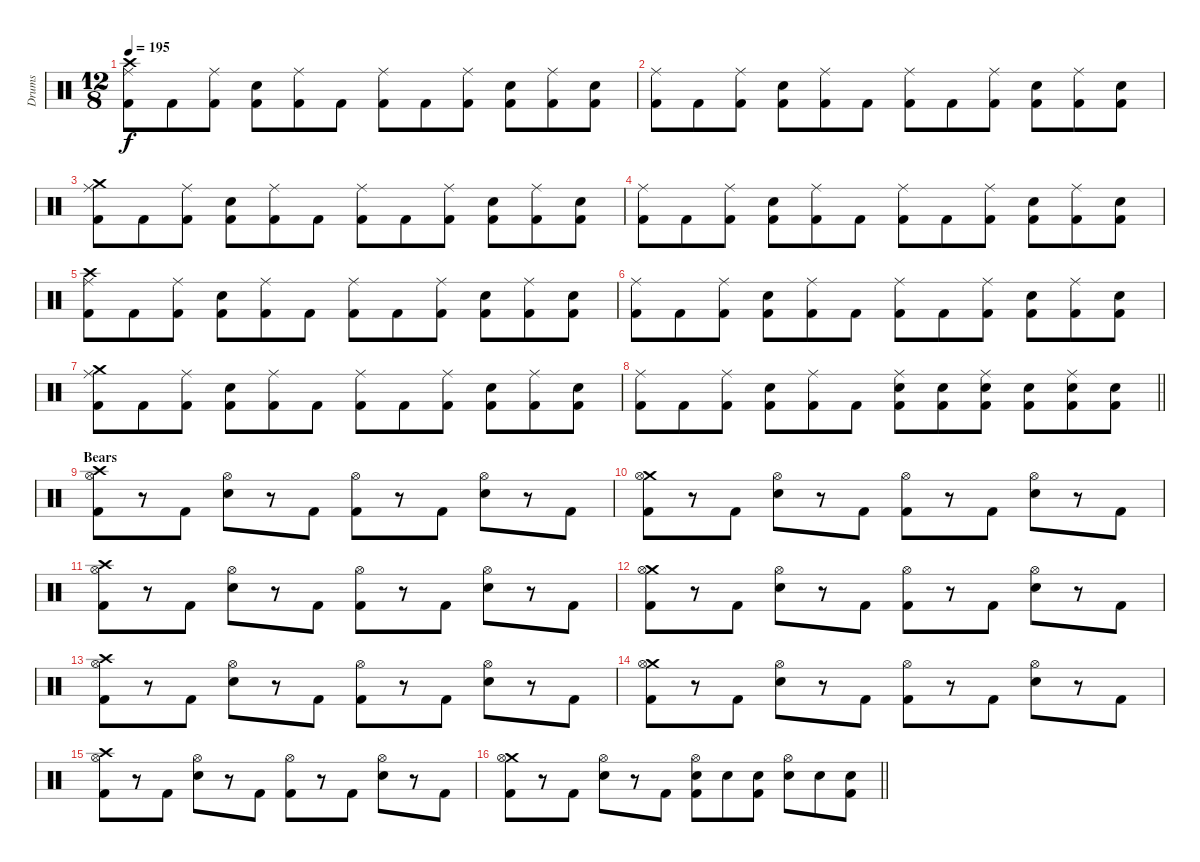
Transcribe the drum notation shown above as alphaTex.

\track ("Drums" "Drums") {instrument percussion}
\staff {score}
\articulation defaults
\ts (12 8)
\tempo 195
\clef neutral
\ks c
("Crash high (hit)" "Ride (middle)" "Kick (hit) 2").8{dy f} "Kick (hit) 2".8 ("Ride (middle)" "Kick (hit) 2").8 ("Snare (hit) 2" "Kick (hit) 2").8 ("Ride (middle)" "Kick (hit) 2").8 "Kick (hit) 2".8 ("Ride (middle)" "Kick (hit) 2").8 "Kick (hit) 2".8 ("Ride (middle)" "Kick (hit) 2").8 ("Snare (hit) 2" "Kick (hit) 2").8 ("Ride (middle)" "Kick (hit) 2").8 ("Snare (hit) 2" "Kick (hit) 2").8 |
("Ride (middle)" "Kick (hit) 2").8 "Kick (hit) 2".8 ("Ride (middle)" "Kick (hit) 2").8 ("Snare (hit) 2" "Kick (hit) 2").8 ("Ride (middle)" "Kick (hit) 2").8 "Kick (hit) 2".8 ("Ride (middle)" "Kick (hit) 2").8 "Kick (hit) 2".8 ("Ride (middle)" "Kick (hit) 2").8 ("Snare (hit) 2" "Kick (hit) 2").8 ("Ride (middle)" "Kick (hit) 2").8 ("Snare (hit) 2" "Kick (hit) 2").8 |
("Crash medium (hit)" "Ride (middle)" "Kick (hit) 2").8 "Kick (hit) 2".8 ("Ride (middle)" "Kick (hit) 2").8 ("Snare (hit) 2" "Kick (hit) 2").8 ("Ride (middle)" "Kick (hit) 2").8 "Kick (hit) 2".8 ("Ride (middle)" "Kick (hit) 2").8 "Kick (hit) 2".8 ("Ride (middle)" "Kick (hit) 2").8 ("Snare (hit) 2" "Kick (hit) 2").8 ("Ride (middle)" "Kick (hit) 2").8 ("Snare (hit) 2" "Kick (hit) 2").8 |
("Ride (middle)" "Kick (hit) 2").8 "Kick (hit) 2".8 ("Ride (middle)" "Kick (hit) 2").8 ("Snare (hit) 2" "Kick (hit) 2").8 ("Ride (middle)" "Kick (hit) 2").8 "Kick (hit) 2".8 ("Ride (middle)" "Kick (hit) 2").8 "Kick (hit) 2".8 ("Ride (middle)" "Kick (hit) 2").8 ("Snare (hit) 2" "Kick (hit) 2").8 ("Ride (middle)" "Kick (hit) 2").8 ("Snare (hit) 2" "Kick (hit) 2").8 |
("Crash high (hit)" "Ride (middle)" "Kick (hit) 2").8 "Kick (hit) 2".8 ("Ride (middle)" "Kick (hit) 2").8 ("Snare (hit) 2" "Kick (hit) 2").8 ("Ride (middle)" "Kick (hit) 2").8 "Kick (hit) 2".8 ("Ride (middle)" "Kick (hit) 2").8 "Kick (hit) 2".8 ("Ride (middle)" "Kick (hit) 2").8 ("Snare (hit) 2" "Kick (hit) 2").8 ("Ride (middle)" "Kick (hit) 2").8 ("Snare (hit) 2" "Kick (hit) 2").8 |
("Ride (middle)" "Kick (hit) 2").8 "Kick (hit) 2".8 ("Ride (middle)" "Kick (hit) 2").8 ("Snare (hit) 2" "Kick (hit) 2").8 ("Ride (middle)" "Kick (hit) 2").8 "Kick (hit) 2".8 ("Ride (middle)" "Kick (hit) 2").8 "Kick (hit) 2".8 ("Ride (middle)" "Kick (hit) 2").8 ("Snare (hit) 2" "Kick (hit) 2").8 ("Ride (middle)" "Kick (hit) 2").8 ("Snare (hit) 2" "Kick (hit) 2").8 |
("Crash medium (hit)" "Ride (middle)" "Kick (hit) 2").8 "Kick (hit) 2".8 ("Ride (middle)" "Kick (hit) 2").8 ("Snare (hit) 2" "Kick (hit) 2").8 ("Ride (middle)" "Kick (hit) 2").8 "Kick (hit) 2".8 ("Ride (middle)" "Kick (hit) 2").8 "Kick (hit) 2".8 ("Ride (middle)" "Kick (hit) 2").8 ("Snare (hit) 2" "Kick (hit) 2").8 ("Ride (middle)" "Kick (hit) 2").8 ("Snare (hit) 2" "Kick (hit) 2").8 |
\barLineRight lightlight
("Ride (middle)" "Kick (hit) 2").8 "Kick (hit) 2".8 ("Ride (middle)" "Kick (hit) 2").8 ("Snare (hit) 2" "Kick (hit) 2").8 ("Ride (middle)" "Kick (hit) 2").8 "Kick (hit) 2".8 ("Ride (middle)" "Snare (hit) 2" "Kick (hit) 2").8 ("Snare (hit) 2" "Kick (hit) 2").8 ("Ride (middle)" "Snare (hit) 2" "Kick (hit) 2").8 ("Snare (hit) 2" "Kick (hit) 2").8 ("Ride (middle)" "Snare (hit) 2" "Kick (hit) 2").8 ("Snare (hit) 2" "Kick (hit) 2").8 |
\section ("" "Bears")
("Crash high (hit)" "Hi-Hat (open)" "Kick (hit) 2").8 r.8 "Kick (hit) 2".8 ("Hi-Hat (open)" "Snare (hit) 2").8 r.8 "Kick (hit) 2".8 ("Hi-Hat (open)" "Kick (hit) 2").8 r.8 "Kick (hit) 2".8 ("Hi-Hat (open)" "Snare (hit) 2").8 r.8 "Kick (hit) 2".8 |
("Crash medium (hit)" "Hi-Hat (open)" "Kick (hit) 2").8 r.8 "Kick (hit) 2".8 ("Hi-Hat (open)" "Snare (hit) 2").8 r.8 "Kick (hit) 2".8 ("Hi-Hat (open)" "Kick (hit) 2").8 r.8 "Kick (hit) 2".8 ("Hi-Hat (open)" "Snare (hit) 2").8 r.8 "Kick (hit) 2".8 |
("Crash high (hit)" "Hi-Hat (open)" "Kick (hit) 2").8 r.8 "Kick (hit) 2".8 ("Hi-Hat (open)" "Snare (hit) 2").8 r.8 "Kick (hit) 2".8 ("Hi-Hat (open)" "Kick (hit) 2").8 r.8 "Kick (hit) 2".8 ("Hi-Hat (open)" "Snare (hit) 2").8 r.8 "Kick (hit) 2".8 |
("Crash medium (hit)" "Hi-Hat (open)" "Kick (hit) 2").8 r.8 "Kick (hit) 2".8 ("Hi-Hat (open)" "Snare (hit) 2").8 r.8 "Kick (hit) 2".8 ("Hi-Hat (open)" "Kick (hit) 2").8 r.8 "Kick (hit) 2".8 ("Hi-Hat (open)" "Snare (hit) 2").8 r.8 "Kick (hit) 2".8 |
("Crash high (hit)" "Hi-Hat (open)" "Kick (hit) 2").8 r.8 "Kick (hit) 2".8 ("Hi-Hat (open)" "Snare (hit) 2").8 r.8 "Kick (hit) 2".8 ("Hi-Hat (open)" "Kick (hit) 2").8 r.8 "Kick (hit) 2".8 ("Hi-Hat (open)" "Snare (hit) 2").8 r.8 "Kick (hit) 2".8 |
("Crash medium (hit)" "Hi-Hat (open)" "Kick (hit) 2").8 r.8 "Kick (hit) 2".8 ("Hi-Hat (open)" "Snare (hit) 2").8 r.8 "Kick (hit) 2".8 ("Hi-Hat (open)" "Kick (hit) 2").8 r.8 "Kick (hit) 2".8 ("Hi-Hat (open)" "Snare (hit) 2").8 r.8 "Kick (hit) 2".8 |
("Crash high (hit)" "Hi-Hat (open)" "Kick (hit) 2").8 r.8 "Kick (hit) 2".8 ("Hi-Hat (open)" "Snare (hit) 2").8 r.8 "Kick (hit) 2".8 ("Hi-Hat (open)" "Kick (hit) 2").8 r.8 "Kick (hit) 2".8 ("Hi-Hat (open)" "Snare (hit) 2").8 r.8 "Kick (hit) 2".8 |
\barLineRight lightlight
("Crash medium (hit)" "Hi-Hat (open)" "Kick (hit) 2").8 r.8 "Kick (hit) 2".8 ("Hi-Hat (open)" "Snare (hit) 2").8 r.8 "Kick (hit) 2".8 ("Hi-Hat (open)" "Snare (hit) 2" "Kick (hit) 2").8 "Snare (hit) 2".8 ("Snare (hit) 2" "Kick (hit) 2").8 ("Hi-Hat (open)" "Snare (hit) 2").8 "Snare (hit) 2".8 ("Snare (hit) 2" "Kick (hit) 2").8
